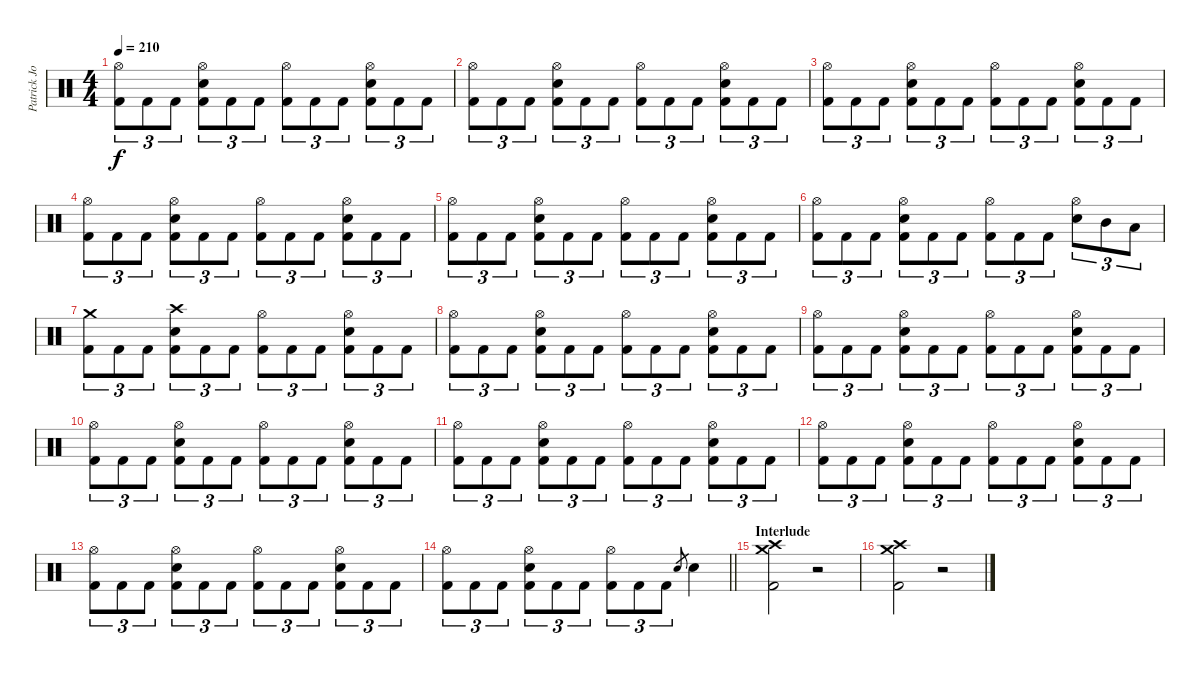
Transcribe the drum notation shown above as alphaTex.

\track ("Patrick Johansson" "Patrick Jo") {instrument percussion}
\staff {score}
\articulation defaults
\ts (4 4)
\tempo 210
\clef neutral
\ks c
("Hi-Hat (open)" "Kick (hit) 2").8{tu (3 2) dy f} "Kick (hit) 2".8{tu (3 2)} "Kick (hit) 2".8{tu (3 2)} ("Hi-Hat (open)" "Snare (hit) 2" "Kick (hit) 2").8{tu (3 2)} "Kick (hit) 2".8{tu (3 2)} "Kick (hit) 2".8{tu (3 2)} ("Hi-Hat (open)" "Kick (hit) 2").8{tu (3 2)} "Kick (hit) 2".8{tu (3 2)} "Kick (hit) 2".8{tu (3 2)} ("Hi-Hat (open)" "Snare (hit) 2" "Kick (hit) 2").8{tu (3 2)} "Kick (hit) 2".8{tu (3 2)} "Kick (hit) 2".8{tu (3 2)} |
("Hi-Hat (open)" "Kick (hit) 2").8{tu (3 2)} "Kick (hit) 2".8{tu (3 2)} "Kick (hit) 2".8{tu (3 2)} ("Hi-Hat (open)" "Snare (hit) 2" "Kick (hit) 2").8{tu (3 2)} "Kick (hit) 2".8{tu (3 2)} "Kick (hit) 2".8{tu (3 2)} ("Hi-Hat (open)" "Kick (hit) 2").8{tu (3 2)} "Kick (hit) 2".8{tu (3 2)} "Kick (hit) 2".8{tu (3 2)} ("Hi-Hat (open)" "Snare (hit) 2" "Kick (hit) 2").8{tu (3 2)} "Kick (hit) 2".8{tu (3 2)} "Kick (hit) 2".8{tu (3 2)} |
("Hi-Hat (open)" "Kick (hit) 2").8{tu (3 2)} "Kick (hit) 2".8{tu (3 2)} "Kick (hit) 2".8{tu (3 2)} ("Hi-Hat (open)" "Snare (hit) 2" "Kick (hit) 2").8{tu (3 2)} "Kick (hit) 2".8{tu (3 2)} "Kick (hit) 2".8{tu (3 2)} ("Hi-Hat (open)" "Kick (hit) 2").8{tu (3 2)} "Kick (hit) 2".8{tu (3 2)} "Kick (hit) 2".8{tu (3 2)} ("Hi-Hat (open)" "Snare (hit) 2" "Kick (hit) 2").8{tu (3 2)} "Kick (hit) 2".8{tu (3 2)} "Kick (hit) 2".8{tu (3 2)} |
("Hi-Hat (open)" "Kick (hit) 2").8{tu (3 2)} "Kick (hit) 2".8{tu (3 2)} "Kick (hit) 2".8{tu (3 2)} ("Hi-Hat (open)" "Snare (hit) 2" "Kick (hit) 2").8{tu (3 2)} "Kick (hit) 2".8{tu (3 2)} "Kick (hit) 2".8{tu (3 2)} ("Hi-Hat (open)" "Kick (hit) 2").8{tu (3 2)} "Kick (hit) 2".8{tu (3 2)} "Kick (hit) 2".8{tu (3 2)} ("Hi-Hat (open)" "Snare (hit) 2" "Kick (hit) 2").8{tu (3 2)} "Kick (hit) 2".8{tu (3 2)} "Kick (hit) 2".8{tu (3 2)} |
("Hi-Hat (open)" "Kick (hit) 2").8{tu (3 2)} "Kick (hit) 2".8{tu (3 2)} "Kick (hit) 2".8{tu (3 2)} ("Hi-Hat (open)" "Snare (hit) 2" "Kick (hit) 2").8{tu (3 2)} "Kick (hit) 2".8{tu (3 2)} "Kick (hit) 2".8{tu (3 2)} ("Hi-Hat (open)" "Kick (hit) 2").8{tu (3 2)} "Kick (hit) 2".8{tu (3 2)} "Kick (hit) 2".8{tu (3 2)} ("Hi-Hat (open)" "Snare (hit) 2" "Kick (hit) 2").8{tu (3 2)} "Kick (hit) 2".8{tu (3 2)} "Kick (hit) 2".8{tu (3 2)} |
("Hi-Hat (open)" "Kick (hit) 2").8{tu (3 2)} "Kick (hit) 2".8{tu (3 2)} "Kick (hit) 2".8{tu (3 2)} ("Hi-Hat (open)" "Snare (hit) 2" "Kick (hit) 2").8{tu (3 2)} "Kick (hit) 2".8{tu (3 2)} "Kick (hit) 2".8{tu (3 2)} ("Hi-Hat (open)" "Kick (hit) 2").8{tu (3 2)} "Kick (hit) 2".8{tu (3 2)} "Kick (hit) 2".8{tu (3 2)} ("Hi-Hat (open)" "Snare (hit) 2").8{tu (3 2)} "Mid Tom (hit)".8{tu (3 2)} "Low Tom (hit)".8{tu (3 2)} |
("Crash medium (hit)" "Kick (hit) 2").8{tu (3 2)} "Kick (hit) 2".8{tu (3 2)} "Kick (hit) 2".8{tu (3 2)} ("Crash high (hit)" "Snare (hit) 2" "Kick (hit) 2").8{tu (3 2)} "Kick (hit) 2".8{tu (3 2)} "Kick (hit) 2".8{tu (3 2)} ("Hi-Hat (open)" "Kick (hit) 2").8{tu (3 2)} "Kick (hit) 2".8{tu (3 2)} "Kick (hit) 2".8{tu (3 2)} ("Hi-Hat (open)" "Snare (hit) 2" "Kick (hit) 2").8{tu (3 2)} "Kick (hit) 2".8{tu (3 2)} "Kick (hit) 2".8{tu (3 2)} |
("Hi-Hat (open)" "Kick (hit) 2").8{tu (3 2)} "Kick (hit) 2".8{tu (3 2)} "Kick (hit) 2".8{tu (3 2)} ("Hi-Hat (open)" "Snare (hit) 2" "Kick (hit) 2").8{tu (3 2)} "Kick (hit) 2".8{tu (3 2)} "Kick (hit) 2".8{tu (3 2)} ("Hi-Hat (open)" "Kick (hit) 2").8{tu (3 2)} "Kick (hit) 2".8{tu (3 2)} "Kick (hit) 2".8{tu (3 2)} ("Hi-Hat (open)" "Snare (hit) 2" "Kick (hit) 2").8{tu (3 2)} "Kick (hit) 2".8{tu (3 2)} "Kick (hit) 2".8{tu (3 2)} |
("Hi-Hat (open)" "Kick (hit) 2").8{tu (3 2)} "Kick (hit) 2".8{tu (3 2)} "Kick (hit) 2".8{tu (3 2)} ("Hi-Hat (open)" "Snare (hit) 2" "Kick (hit) 2").8{tu (3 2)} "Kick (hit) 2".8{tu (3 2)} "Kick (hit) 2".8{tu (3 2)} ("Hi-Hat (open)" "Kick (hit) 2").8{tu (3 2)} "Kick (hit) 2".8{tu (3 2)} "Kick (hit) 2".8{tu (3 2)} ("Hi-Hat (open)" "Snare (hit) 2" "Kick (hit) 2").8{tu (3 2)} "Kick (hit) 2".8{tu (3 2)} "Kick (hit) 2".8{tu (3 2)} |
("Hi-Hat (open)" "Kick (hit) 2").8{tu (3 2)} "Kick (hit) 2".8{tu (3 2)} "Kick (hit) 2".8{tu (3 2)} ("Hi-Hat (open)" "Snare (hit) 2" "Kick (hit) 2").8{tu (3 2)} "Kick (hit) 2".8{tu (3 2)} "Kick (hit) 2".8{tu (3 2)} ("Hi-Hat (open)" "Kick (hit) 2").8{tu (3 2)} "Kick (hit) 2".8{tu (3 2)} "Kick (hit) 2".8{tu (3 2)} ("Hi-Hat (open)" "Snare (hit) 2" "Kick (hit) 2").8{tu (3 2)} "Kick (hit) 2".8{tu (3 2)} "Kick (hit) 2".8{tu (3 2)} |
("Hi-Hat (open)" "Kick (hit) 2").8{tu (3 2)} "Kick (hit) 2".8{tu (3 2)} "Kick (hit) 2".8{tu (3 2)} ("Hi-Hat (open)" "Snare (hit) 2" "Kick (hit) 2").8{tu (3 2)} "Kick (hit) 2".8{tu (3 2)} "Kick (hit) 2".8{tu (3 2)} ("Hi-Hat (open)" "Kick (hit) 2").8{tu (3 2)} "Kick (hit) 2".8{tu (3 2)} "Kick (hit) 2".8{tu (3 2)} ("Hi-Hat (open)" "Snare (hit) 2" "Kick (hit) 2").8{tu (3 2)} "Kick (hit) 2".8{tu (3 2)} "Kick (hit) 2".8{tu (3 2)} |
("Hi-Hat (open)" "Kick (hit) 2").8{tu (3 2)} "Kick (hit) 2".8{tu (3 2)} "Kick (hit) 2".8{tu (3 2)} ("Hi-Hat (open)" "Snare (hit) 2" "Kick (hit) 2").8{tu (3 2)} "Kick (hit) 2".8{tu (3 2)} "Kick (hit) 2".8{tu (3 2)} ("Hi-Hat (open)" "Kick (hit) 2").8{tu (3 2)} "Kick (hit) 2".8{tu (3 2)} "Kick (hit) 2".8{tu (3 2)} ("Hi-Hat (open)" "Snare (hit) 2" "Kick (hit) 2").8{tu (3 2)} "Kick (hit) 2".8{tu (3 2)} "Kick (hit) 2".8{tu (3 2)} |
("Hi-Hat (open)" "Kick (hit) 2").8{tu (3 2)} "Kick (hit) 2".8{tu (3 2)} "Kick (hit) 2".8{tu (3 2)} ("Hi-Hat (open)" "Snare (hit) 2" "Kick (hit) 2").8{tu (3 2)} "Kick (hit) 2".8{tu (3 2)} "Kick (hit) 2".8{tu (3 2)} ("Hi-Hat (open)" "Kick (hit) 2").8{tu (3 2)} "Kick (hit) 2".8{tu (3 2)} "Kick (hit) 2".8{tu (3 2)} ("Hi-Hat (open)" "Snare (hit) 2" "Kick (hit) 2").8{tu (3 2)} "Kick (hit) 2".8{tu (3 2)} "Kick (hit) 2".8{tu (3 2)} |
\barLineRight lightlight
("Hi-Hat (open)" "Kick (hit) 2").8{tu (3 2)} "Kick (hit) 2".8{tu (3 2)} "Kick (hit) 2".8{tu (3 2)} ("Hi-Hat (open)" "Snare (hit) 2" "Kick (hit) 2").8{tu (3 2)} "Kick (hit) 2".8{tu (3 2)} "Kick (hit) 2".8{tu (3 2)} ("Hi-Hat (open)" "Kick (hit) 2").8{tu (3 2)} "Kick (hit) 2".8{tu (3 2)} "Kick (hit) 2".8{tu (3 2)} "Snare (hit) 2".8{gr} "Snare (hit) 2".4 |
\section ("" "Interlude")
("Crash medium (hit)" "Crash high (hit)" "Kick (hit) 2").2 r.2 |
("Crash medium (hit)" "Crash high (hit)" "Kick (hit) 2").2 r.2
